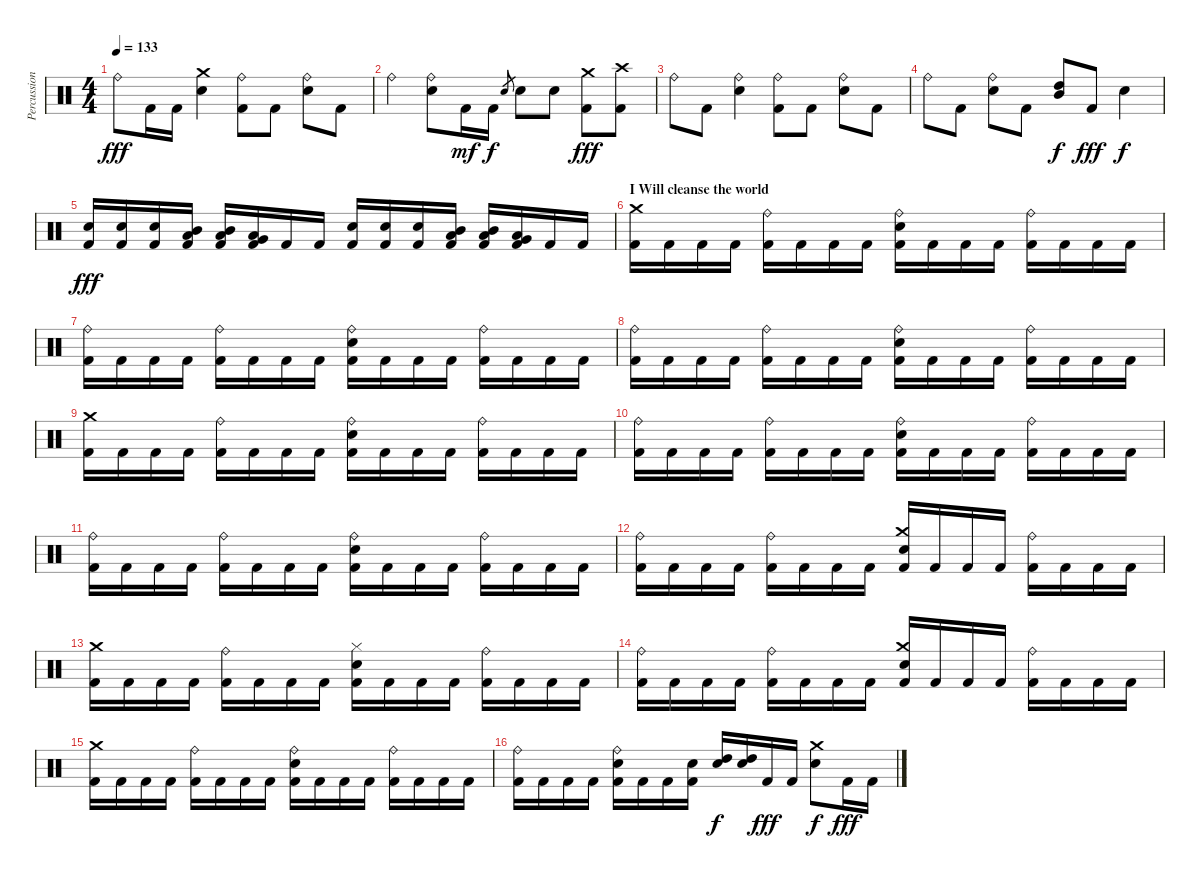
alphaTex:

\track ("Percussion" "Percussion") {instrument percussion}
\staff {score}
\articulation defaults
\ts (4 4)
\tempo 133
\clef neutral
\ks c "Ride (bell)".8{dy fff} "Kick (hit) 2".16 "Kick (hit) 2".16
("Crash medium (hit)" "Electric Snare (hit)").4 ("Ride (bell)" "Kick (hit) 2").8 "Kick (hit) 2".8 ("Ride (bell)" "Electric Snare (hit)").8 "Kick (hit) 2".8 |
"Ride (bell)".4 ("Ride (bell)" "Electric Snare (hit)").8 "Kick (hit) 2".16{dy mf} "Kick (hit) 2".16{dy f} "Electric Snare (hit)".8{gr} "Electric Snare (hit)".8 "Electric Snare (hit)".8 ("Crash medium (hit)" "Kick (hit) 2").8{dy fff} ("Crash high (hit)" "Kick (hit) 2").8 |
"Ride (bell)".8 "Kick (hit) 2".8 ("Ride (bell)" "Electric Snare (hit)").4 ("Ride (bell)" "Kick (hit) 2").8 "Kick (hit) 2".8 ("Ride (bell)" "Electric Snare (hit)").8 "Kick (hit) 2".8 |
"Ride (bell)".8 "Kick (hit) 2".8 ("Ride (bell)" "Electric Snare (hit)").8 "Kick (hit) 2".8 ("Mid Tom (hit)" "High Tom (hit)").8{dy f} "Kick (hit) 2".8{dy fff} "Electric Snare (hit)".4{dy f} |
("Electric Snare (hit)" "Kick (hit) 2").16{dy fff} ("Electric Snare (hit)" "Kick (hit) 2").16 ("Electric Snare (hit)" "Kick (hit) 2").16 ("Mid Tom (hit)" "Low Tom (hit)" "Kick (hit) 2").16 ("Mid Tom (hit)" "Low Tom (hit)" "Kick (hit) 2").16 ("Low Tom (hit)" "Very Low Tom (hit)" "Kick (hit) 2").16 "Kick (hit) 2".16 "Kick (hit) 2".16 ("Electric Snare (hit)" "Kick (hit) 2").16 ("Electric Snare (hit)" "Kick (hit) 2").16 ("Electric Snare (hit)" "Kick (hit) 2").16 ("Mid Tom (hit)" "Low Tom (hit)" "Kick (hit) 2").16 ("Mid Tom (hit)" "Low Tom (hit)" "Kick (hit) 2").16 ("Low Tom (hit)" "Very Low Tom (hit)" "Kick (hit) 2").16 "Kick (hit) 2".16 "Kick (hit) 2".16 |
\section ("" "I Will cleanse the world")
("Crash medium (hit)" "Kick (hit) 2").16 "Kick (hit) 2".16 "Kick (hit) 2".16 "Kick (hit) 2".16 ("Ride (bell)" "Kick (hit) 2").16 "Kick (hit) 2".16 "Kick (hit) 2".16 "Kick (hit) 2".16 ("Ride (bell)" "Electric Snare (hit)" "Kick (hit) 2").16 "Kick (hit) 2".16 "Kick (hit) 2".16 "Kick (hit) 2".16 ("Ride (bell)" "Kick (hit) 2").16 "Kick (hit) 2".16 "Kick (hit) 2".16 "Kick (hit) 2".16 |
("Ride (bell)" "Kick (hit) 2").16 "Kick (hit) 2".16 "Kick (hit) 2".16 "Kick (hit) 2".16 ("Ride (bell)" "Kick (hit) 2").16 "Kick (hit) 2".16 "Kick (hit) 2".16 "Kick (hit) 2".16 ("Ride (bell)" "Electric Snare (hit)" "Kick (hit) 2").16 "Kick (hit) 2".16 "Kick (hit) 2".16 "Kick (hit) 2".16 ("Ride (bell)" "Kick (hit) 2").16 "Kick (hit) 2".16 "Kick (hit) 2".16 "Kick (hit) 2".16 |
("Ride (bell)" "Kick (hit) 2").16 "Kick (hit) 2".16 "Kick (hit) 2".16 "Kick (hit) 2".16 ("Ride (bell)" "Kick (hit) 2").16 "Kick (hit) 2".16 "Kick (hit) 2".16 "Kick (hit) 2".16 ("Ride (bell)" "Electric Snare (hit)" "Kick (hit) 2").16 "Kick (hit) 2".16 "Kick (hit) 2".16 "Kick (hit) 2".16 ("Ride (bell)" "Kick (hit) 2").16 "Kick (hit) 2".16 "Kick (hit) 2".16 "Kick (hit) 2".16 |
("Crash medium (hit)" "Kick (hit) 2").16 "Kick (hit) 2".16 "Kick (hit) 2".16 "Kick (hit) 2".16 ("Ride (bell)" "Kick (hit) 2").16 "Kick (hit) 2".16 "Kick (hit) 2".16 "Kick (hit) 2".16 ("Ride (bell)" "Electric Snare (hit)" "Kick (hit) 2").16 "Kick (hit) 2".16 "Kick (hit) 2".16 "Kick (hit) 2".16 ("Ride (bell)" "Kick (hit) 2").16 "Kick (hit) 2".16 "Kick (hit) 2".16 "Kick (hit) 2".16 |
("Ride (bell)" "Kick (hit) 2").16 "Kick (hit) 2".16 "Kick (hit) 2".16 "Kick (hit) 2".16 ("Ride (bell)" "Kick (hit) 2").16 "Kick (hit) 2".16 "Kick (hit) 2".16 "Kick (hit) 2".16 ("Ride (bell)" "Electric Snare (hit)" "Kick (hit) 2").16 "Kick (hit) 2".16 "Kick (hit) 2".16 "Kick (hit) 2".16 ("Ride (bell)" "Kick (hit) 2").16 "Kick (hit) 2".16 "Kick (hit) 2".16 "Kick (hit) 2".16 |
("Ride (bell)" "Kick (hit) 2").16 "Kick (hit) 2".16 "Kick (hit) 2".16 "Kick (hit) 2".16 ("Ride (bell)" "Kick (hit) 2").16 "Kick (hit) 2".16 "Kick (hit) 2".16 "Kick (hit) 2".16 ("Ride (bell)" "Electric Snare (hit)" "Kick (hit) 2").16 "Kick (hit) 2".16 "Kick (hit) 2".16 "Kick (hit) 2".16 ("Ride (bell)" "Kick (hit) 2").16 "Kick (hit) 2".16 "Kick (hit) 2".16 "Kick (hit) 2".16 |
("Ride (bell)" "Kick (hit) 2").16 "Kick (hit) 2".16 "Kick (hit) 2".16 "Kick (hit) 2".16 ("Ride (bell)" "Kick (hit) 2").16 "Kick (hit) 2".16 "Kick (hit) 2".16 "Kick (hit) 2".16 ("Crash medium (hit)" "Electric Snare (hit)" "Kick (hit) 2").16 "Kick (hit) 2".16 "Kick (hit) 2".16 "Kick (hit) 2".16 ("Ride (bell)" "Kick (hit) 2").16 "Kick (hit) 2".16 "Kick (hit) 2".16 "Kick (hit) 2".16 |
("Crash medium (hit)" "Kick (hit) 2").16 "Kick (hit) 2".16 "Kick (hit) 2".16 "Kick (hit) 2".16 ("Ride (bell)" "Kick (hit) 2").16 "Kick (hit) 2".16 "Kick (hit) 2".16 "Kick (hit) 2".16 ("Hi-Hat (closed)" "Electric Snare (hit)" "Kick (hit) 2").16 "Kick (hit) 2".16 "Kick (hit) 2".16 "Kick (hit) 2".16 ("Ride (bell)" "Kick (hit) 2").16 "Kick (hit) 2".16 "Kick (hit) 2".16 "Kick (hit) 2".16 |
("Ride (bell)" "Kick (hit) 2").16 "Kick (hit) 2".16 "Kick (hit) 2".16 "Kick (hit) 2".16 ("Ride (bell)" "Kick (hit) 2").16 "Kick (hit) 2".16 "Kick (hit) 2".16 "Kick (hit) 2".16 ("Crash medium (hit)" "Electric Snare (hit)" "Kick (hit) 2").16 "Kick (hit) 2".16 "Kick (hit) 2".16 "Kick (hit) 2".16 ("Ride (bell)" "Kick (hit) 2").16 "Kick (hit) 2".16 "Kick (hit) 2".16 "Kick (hit) 2".16 |
("Crash medium (hit)" "Kick (hit) 2").16 "Kick (hit) 2".16 "Kick (hit) 2".16 "Kick (hit) 2".16 ("Ride (bell)" "Kick (hit) 2").16 "Kick (hit) 2".16 "Kick (hit) 2".16 "Kick (hit) 2".16 ("Ride (bell)" "Electric Snare (hit)" "Kick (hit) 2").16 "Kick (hit) 2".16 "Kick (hit) 2".16 "Kick (hit) 2".16 ("Ride (bell)" "Kick (hit) 2").16 "Kick (hit) 2".16 "Kick (hit) 2".16 "Kick (hit) 2".16 |
("Ride (bell)" "Kick (hit) 2").16 "Kick (hit) 2".16 "Kick (hit) 2".16 "Kick (hit) 2".16 ("Ride (bell)" "Electric Snare (hit)" "Kick (hit) 2").16 "Kick (hit) 2".16 "Kick (hit) 2".16 ("Electric Snare (hit)" "Kick (hit) 2").16 ("Electric Snare (hit)" "High Tom (hit)").16{dy f} ("Electric Snare (hit)" "High Tom (hit)").16 "Kick (hit) 2".16{dy fff} "Kick (hit) 2".16 ("Crash medium (hit)" "Electric Snare (hit)").8{dy f} "Kick (hit) 2".16{dy fff} "Kick (hit) 2".16
